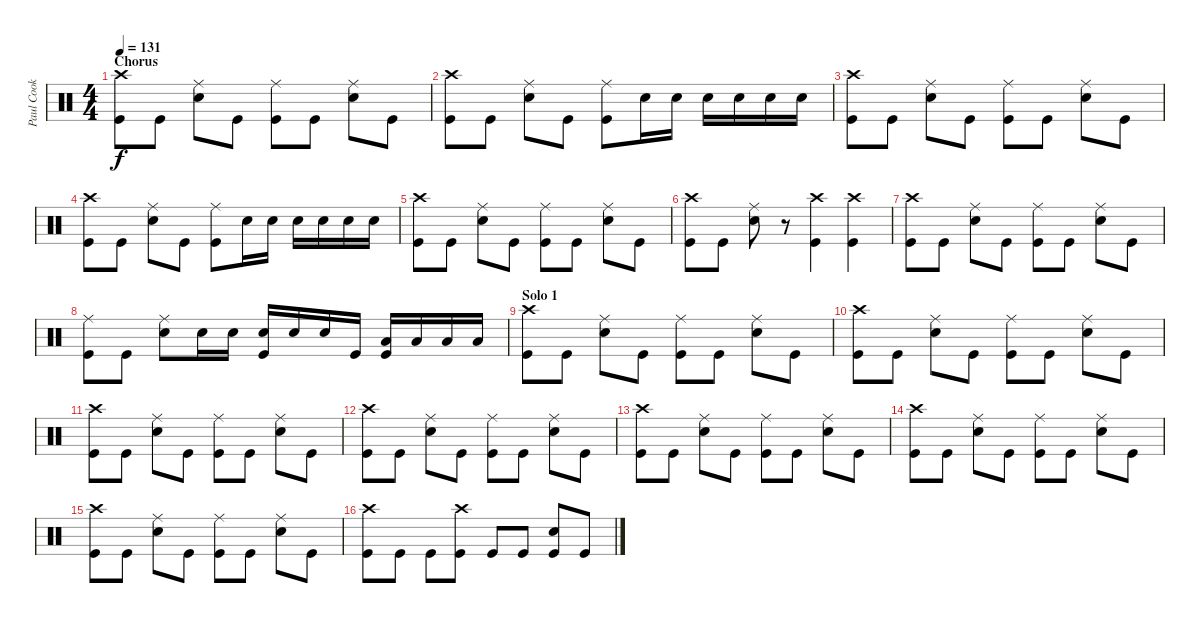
\track ("Paul Cook" "Paul Cook") {instrument percussion}
\staff {score}
\articulation defaults
\ts (4 4)
\section ("" "Chorus")
\tempo 131
\clef neutral
\ks c
("Crash high (hit)" "Kick (hit)").8{dy f} "Kick (hit)".8 ("Ride (middle)" "Snare (hit) 2").8 "Kick (hit)".8 ("Ride (middle)" "Kick (hit)").8 "Kick (hit)".8 ("Ride (middle)" "Snare (hit) 2").8 "Kick (hit)".8 |
("Crash high (hit)" "Kick (hit)").8 "Kick (hit)".8 ("Ride (middle)" "Snare (hit) 2").8 "Kick (hit)".8 ("Ride (middle)" "Kick (hit)").8 "Snare (hit) 2".16 "Snare (hit) 2".16 "Snare (hit) 2".16 "Snare (hit) 2".16 "Snare (hit) 2".16 "Snare (hit) 2".16 |
("Crash high (hit)" "Kick (hit)").8 "Kick (hit)".8 ("Ride (middle)" "Snare (hit) 2").8 "Kick (hit)".8 ("Ride (middle)" "Kick (hit)").8 "Kick (hit)".8 ("Ride (middle)" "Snare (hit) 2").8 "Kick (hit)".8 |
("Crash high (hit)" "Kick (hit)").8 "Kick (hit)".8 ("Ride (middle)" "Snare (hit) 2").8 "Kick (hit)".8 ("Ride (middle)" "Kick (hit)").8 "Snare (hit) 2".16 "Snare (hit) 2".16 "Snare (hit) 2".16 "Snare (hit) 2".16 "Snare (hit) 2".16 "Snare (hit) 2".16 |
("Crash high (hit)" "Kick (hit)").8 "Kick (hit)".8 ("Ride (middle)" "Snare (hit) 2").8 "Kick (hit)".8 ("Ride (middle)" "Kick (hit)").8 "Kick (hit)".8 ("Ride (middle)" "Snare (hit) 2").8 "Kick (hit)".8 |
("Crash high (hit)" "Kick (hit)").8 "Kick (hit)".8 ("Ride (middle)" "Snare (hit) 2").8 r.8 ("Crash high (hit)" "Kick (hit)").4 ("Crash high (hit)" "Kick (hit)").4 |
("Crash high (hit)" "Kick (hit)").8 "Kick (hit)".8 ("Ride (middle)" "Snare (hit) 2").8 "Kick (hit)".8 ("Ride (middle)" "Kick (hit)").8 "Kick (hit)".8 ("Ride (middle)" "Snare (hit) 2").8 "Kick (hit)".8 |
("Ride (middle)" "Kick (hit)").8 "Kick (hit)".8 ("Ride (middle)" "Snare (hit) 2").8 "Snare (hit) 2".16 "Snare (hit) 2".16 ("Snare (hit) 2" "Kick (hit)").16 "Snare (hit) 2".16 "Snare (hit) 2".16 "Kick (hit)".16 ("Low Tom (hit)" "Kick (hit)").16 "Low Tom (hit)".16 "Low Tom (hit)".16 "Low Tom (hit)".16 |
\section ("" "Solo 1")
("Crash high (hit)" "Kick (hit)").8 "Kick (hit)".8 ("Ride (middle)" "Snare (hit) 2").8 "Kick (hit)".8 ("Ride (middle)" "Kick (hit)").8 "Kick (hit)".8 ("Ride (middle)" "Snare (hit) 2").8 "Kick (hit)".8 |
("Crash high (hit)" "Kick (hit)").8 "Kick (hit)".8 ("Ride (middle)" "Snare (hit) 2").8 "Kick (hit)".8 ("Ride (middle)" "Kick (hit)").8 "Kick (hit)".8 ("Ride (middle)" "Snare (hit) 2").8 "Kick (hit)".8 |
("Crash high (hit)" "Kick (hit)").8 "Kick (hit)".8 ("Ride (middle)" "Snare (hit) 2").8 "Kick (hit)".8 ("Ride (middle)" "Kick (hit)").8 "Kick (hit)".8 ("Ride (middle)" "Snare (hit) 2").8 "Kick (hit)".8 |
("Crash high (hit)" "Kick (hit)").8 "Kick (hit)".8 ("Ride (middle)" "Snare (hit) 2").8 "Kick (hit)".8 ("Ride (middle)" "Kick (hit)").8 "Kick (hit)".8 ("Ride (middle)" "Snare (hit) 2").8 "Kick (hit)".8 |
("Crash high (hit)" "Kick (hit)").8 "Kick (hit)".8 ("Ride (middle)" "Snare (hit) 2").8 "Kick (hit)".8 ("Ride (middle)" "Kick (hit)").8 "Kick (hit)".8 ("Ride (middle)" "Snare (hit) 2").8 "Kick (hit)".8 |
("Crash high (hit)" "Kick (hit)").8 "Kick (hit)".8 ("Ride (middle)" "Snare (hit) 2").8 "Kick (hit)".8 ("Ride (middle)" "Kick (hit)").8 "Kick (hit)".8 ("Ride (middle)" "Snare (hit) 2").8 "Kick (hit)".8 |
("Crash high (hit)" "Kick (hit)").8 "Kick (hit)".8 ("Ride (middle)" "Snare (hit) 2").8 "Kick (hit)".8 ("Ride (middle)" "Kick (hit)").8 "Kick (hit)".8 ("Ride (middle)" "Snare (hit) 2").8 "Kick (hit)".8 |
("Crash high (hit)" "Kick (hit)").8 "Kick (hit)".8 "Kick (hit)".8 ("Crash high (hit)" "Kick (hit)").8 "Kick (hit)".8 "Kick (hit)".8 ("Snare (hit) 2" "Kick (hit)").8 "Kick (hit)".8
